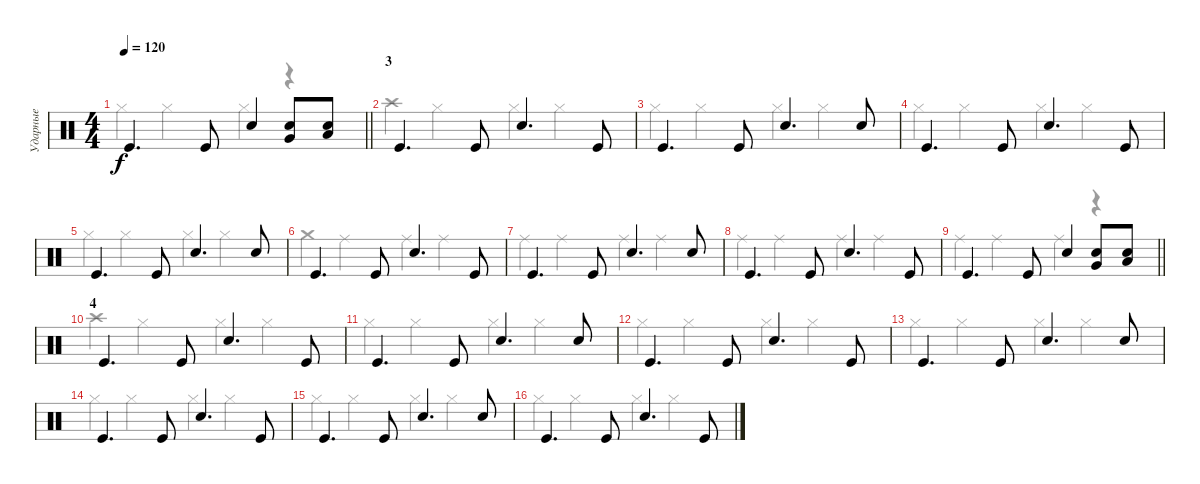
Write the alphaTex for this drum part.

\track ("Ударные" "Ударные") {instrument percussion}
\staff {score}
\articulation defaults
\voice
\ts (4 4)
\tempo 120
\clef neutral
\barLineRight lightlight
\ks c "Kick (hit)".4{d dy f} "Kick (hit)".8 "Snare (hit) 2".4
("Snare (hit) 2" "Very Low Tom (hit)").8 ("Snare (hit) 2" "Low Floor Tom (hit)").8 |
\section ("" "3")
"Kick (hit)".4{d} "Kick (hit)".8 "Snare (hit) 2".4{d} "Kick (hit)".8 |
"Kick (hit)".4{d} "Kick (hit)".8 "Snare (hit) 2".4{d} "Snare (hit) 2".8 |
"Kick (hit)".4{d} "Kick (hit)".8 "Snare (hit) 2".4{d} "Kick (hit)".8 |
"Kick (hit)".4{d} "Kick (hit)".8 "Snare (hit) 2".4{d} "Snare (hit) 2".8 |
"Kick (hit)".4{d} "Kick (hit)".8 "Snare (hit) 2".4{d} "Kick (hit)".8 |
"Kick (hit)".4{d} "Kick (hit)".8 "Snare (hit) 2".4{d} "Snare (hit) 2".8 |
"Kick (hit)".4{d} "Kick (hit)".8 "Snare (hit) 2".4{d} "Kick (hit)".8 |
\barLineRight lightlight "Kick (hit)".4{d} "Kick (hit)".8 "Snare (hit) 2".4
("Snare (hit) 2" "Very Low Tom (hit)").8 ("Snare (hit) 2" "Low Floor Tom (hit)").8 |
\section ("" "4")
"Kick (hit)".4{d} "Kick (hit)".8 "Snare (hit) 2".4{d} "Kick (hit)".8 |
"Kick (hit)".4{d} "Kick (hit)".8 "Snare (hit) 2".4{d} "Snare (hit) 2".8 |
"Kick (hit)".4{d} "Kick (hit)".8 "Snare (hit) 2".4{d} "Kick (hit)".8 |
"Kick (hit)".4{d} "Kick (hit)".8 "Snare (hit) 2".4{d} "Snare (hit) 2".8 |
"Kick (hit)".4{d} "Kick (hit)".8 "Snare (hit) 2".4{d} "Kick (hit)".8 |
"Kick (hit)".4{d} "Kick (hit)".8 "Snare (hit) 2".4{d} "Snare (hit) 2".8 |
"Kick (hit)".4{d} "Kick (hit)".8 "Snare (hit) 2".4{d} "Kick (hit)".8
\voice
\clef neutral
\ottava regular
\simile none
\barLineRight lightlight
\ks c "Hi-Hat (closed)".4{dy f} "Hi-Hat (closed)".4 "Hi-Hat (closed)".4
r.4 |
"Crash high (hit)".4 "Hi-Hat (closed)".4 "Hi-Hat (closed)".4 "Hi-Hat (closed)".4 |
"Hi-Hat (closed)".4 "Hi-Hat (closed)".4 "Hi-Hat (closed)".4 "Hi-Hat (closed)".4 |
"Hi-Hat (closed)".4 "Hi-Hat (closed)".4 "Hi-Hat (closed)".4 "Hi-Hat (closed)".4 |
"Hi-Hat (closed)".4 "Hi-Hat (closed)".4 "Hi-Hat (closed)".4 "Hi-Hat (closed)".4 |
"Crash medium (hit)".4 "Ride (middle)".4 "Ride (middle)".4 "Ride (middle)".4 |
"Ride (middle)".4 "Ride (middle)".4 "Ride (middle)".4 "Ride (middle)".4 |
"Ride (middle)".4 "Ride (middle)".4 "Ride (middle)".4 "Ride (middle)".4 |
\barLineRight lightlight "Ride (middle)".4 "Ride (middle)".4 "Ride (middle)".4
r.4 |
"Crash high (hit)".4 "Hi-Hat (closed)".4 "Hi-Hat (closed)".4 "Hi-Hat (closed)".4 |
"Hi-Hat (closed)".4 "Hi-Hat (closed)".4 "Hi-Hat (closed)".4 "Hi-Hat (closed)".4 |
"Hi-Hat (closed)".4 "Hi-Hat (closed)".4 "Hi-Hat (closed)".4 "Hi-Hat (closed)".4 |
"Hi-Hat (closed)".4 "Hi-Hat (closed)".4 "Hi-Hat (closed)".4 "Hi-Hat (closed)".4 |
"Hi-Hat (closed)".4 "Hi-Hat (closed)".4 "Hi-Hat (closed)".4 "Hi-Hat (closed)".4 |
"Hi-Hat (closed)".4 "Hi-Hat (closed)".4 "Hi-Hat (closed)".4 "Hi-Hat (closed)".4 |
"Hi-Hat (closed)".4 "Hi-Hat (closed)".4 "Hi-Hat (closed)".4 "Hi-Hat (closed)".4
